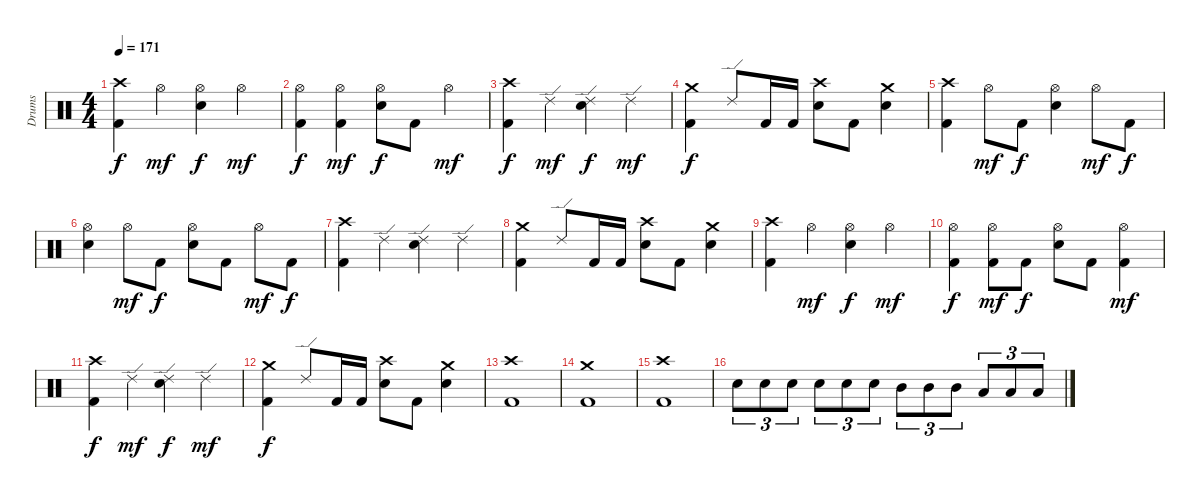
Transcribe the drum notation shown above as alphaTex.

\track ("Drums" "Drums") {instrument percussion}
\staff {score}
\articulation defaults
\ts (4 4)
\tempo 171
\clef neutral
\ks c
("Crash high (hit)" "Kick (hit) 2").4{dy f} "Hi-Hat (open)".4{dy mf} ("Hi-Hat (open)" "Electric Snare (hit)").4{dy f} "Hi-Hat (open)".4{dy mf} |
("Hi-Hat (open)" "Kick (hit) 2").4{dy f} ("Hi-Hat (open)" "Kick (hit) 2").4{dy mf} ("Hi-Hat (open)" "Electric Snare (hit)").8{dy f} "Kick (hit) 2".8 "Hi-Hat (open)".4{dy mf} |
("Crash high (hit)" "Kick (hit) 2").4{dy f} "Ride (edge) 2".4{dy mf} ("Ride (edge) 2" "Electric Snare (hit)").4{dy f} "Ride (edge) 2".4{dy mf} |
("Crash medium (hit)" "Kick (hit) 2").4{dy f} "Ride (edge) 2".8 "Kick (hit) 2".16 "Kick (hit) 2".16 ("Crash high (hit)" "Electric Snare (hit)").8 "Kick (hit) 2".8 ("Crash medium (hit)" "Electric Snare (hit)").4 |
("Crash high (hit)" "Kick (hit) 2").4 "Hi-Hat (open)".8{dy mf} "Kick (hit) 2".8{dy f} ("Hi-Hat (open)" "Electric Snare (hit)").4 "Hi-Hat (open)".8{dy mf} "Kick (hit) 2".8{dy f} |
("Hi-Hat (open)" "Electric Snare (hit)").4 "Hi-Hat (open)".8{dy mf} "Kick (hit) 2".8{dy f} ("Hi-Hat (open)" "Electric Snare (hit)").8 "Kick (hit) 2".8 "Hi-Hat (open)".8{dy mf} "Kick (hit) 2".8{dy f} |
("Crash high (hit)" "Kick (hit) 2").4 "Ride (edge) 2".4 ("Ride (edge) 2" "Electric Snare (hit)").4 "Ride (edge) 2".4 |
("Crash medium (hit)" "Kick (hit) 2").4 "Ride (edge) 2".8 "Kick (hit) 2".16 "Kick (hit) 2".16 ("Crash high (hit)" "Electric Snare (hit)").8 "Kick (hit) 2".8 ("Crash medium (hit)" "Electric Snare (hit)").4 |
("Crash high (hit)" "Kick (hit) 2").4 "Hi-Hat (open)".4{dy mf} ("Hi-Hat (open)" "Electric Snare (hit)").4{dy f} "Hi-Hat (open)".4{dy mf} |
("Hi-Hat (open)" "Kick (hit) 2").4{dy f} ("Hi-Hat (open)" "Kick (hit) 2").8{dy mf} "Kick (hit) 2".8{dy f} ("Hi-Hat (open)" "Electric Snare (hit)").8 "Kick (hit) 2".8 ("Hi-Hat (open)" "Kick (hit) 2").4{dy mf} |
("Crash high (hit)" "Kick (hit) 2").4{dy f} "Ride (edge) 2".4{dy mf} ("Ride (edge) 2" "Electric Snare (hit)").4{dy f} "Ride (edge) 2".4{dy mf} |
("Crash medium (hit)" "Kick (hit) 2").4{dy f} "Ride (edge) 2".8 "Kick (hit) 2".16 "Kick (hit) 2".16 ("Crash high (hit)" "Electric Snare (hit)").8 "Kick (hit) 2".8 ("Crash medium (hit)" "Electric Snare (hit)").4 |
("Crash high (hit)" "Kick (hit) 2").1 |
("Crash medium (hit)" "Kick (hit) 2").1 |
("Crash high (hit)" "Kick (hit) 2").1 |
"Electric Snare (hit)".8{tu (3 2)} "Electric Snare (hit)".8{tu (3 2)} "Electric Snare (hit)".8{tu (3 2)} "Electric Snare (hit)".8{tu (3 2)} "Electric Snare (hit)".8{tu (3 2)} "Electric Snare (hit)".8{tu (3 2)} "Mid Tom (hit)".8{tu (3 2)} "Mid Tom (hit)".8{tu (3 2)} "Mid Tom (hit)".8{tu (3 2)} "Low Tom (hit)".8{tu (3 2)} "Low Tom (hit)".8{tu (3 2)} "Low Tom (hit)".8{tu (3 2)}
